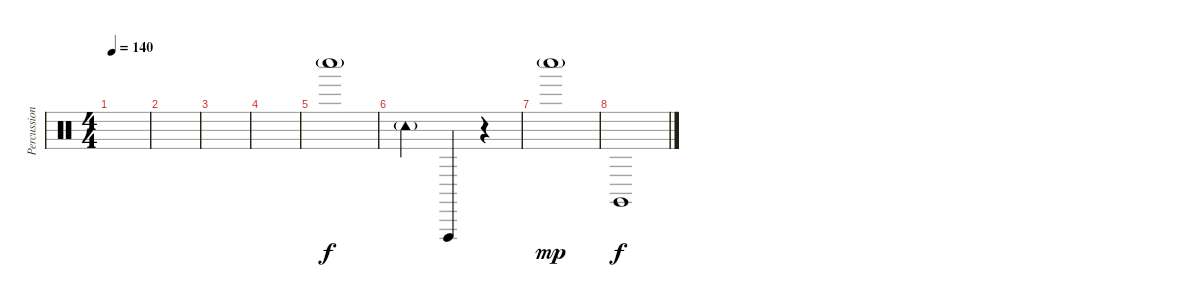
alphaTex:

\track ("Percussion" "Percussion") {instrument percussion}
\staff {score}
\articulation defaults
\ts (4 4)
\tempo 140
\clef neutral
\ks c
|
|
|
|
"Whistle low (hit)"{g}.1 |
"Tambourine (hit)"{g}.2 "Vibraslap (hit)".4{dy f} r.4 |
"Whistle low (hit)"{g}.1{dy mp} |
"Claves (hit)".1{dy f}
